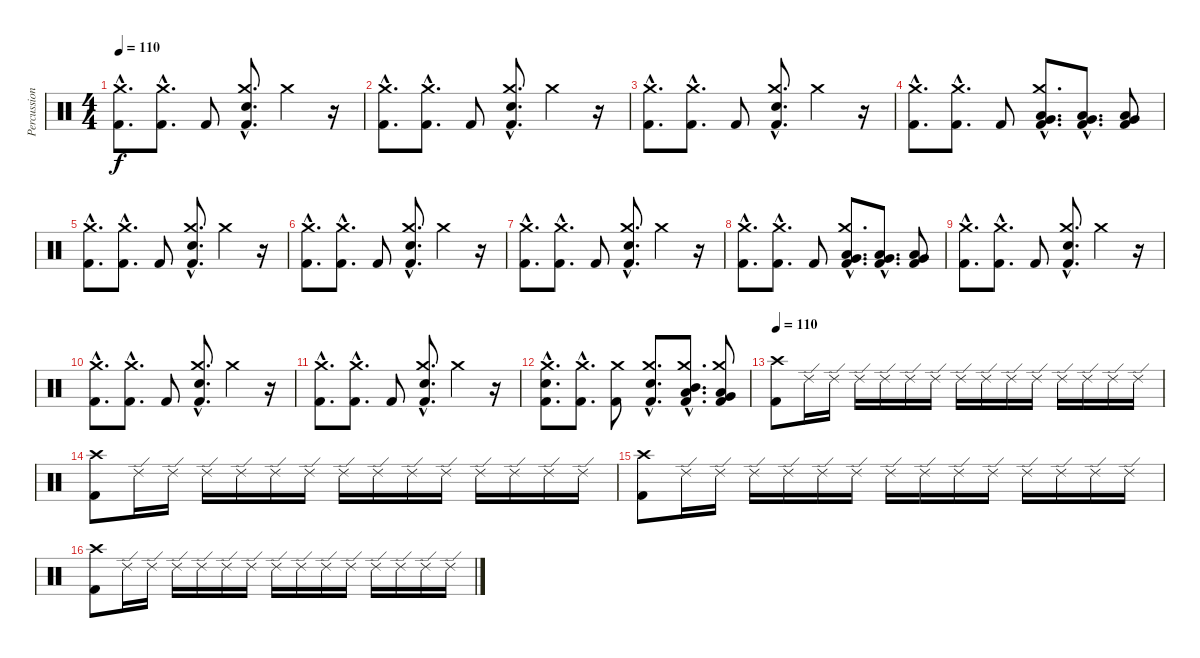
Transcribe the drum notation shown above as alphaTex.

\track ("Percussion" "Percussion") {instrument percussion}
\staff {score}
\articulation defaults
\ts (4 4)
\tempo 110
\clef neutral
\ks c
("Kick (hit) 2"{hac} "Crash medium (hit)"{hac}).8{d dy f} ("Kick (hit) 2"{hac} "Crash medium (hit)"{hac}).8{d} "Kick (hit) 2".8 ("Snare (hit) 2"{hac} "Kick (hit) 2"{hac} "Crash medium (hit)"{hac}).8{d} "Crash medium (hit)".4 r.16 |
("Kick (hit) 2"{hac} "Crash medium (hit)"{hac}).8{d} ("Kick (hit) 2"{hac} "Crash medium (hit)"{hac}).8{d} "Kick (hit) 2".8 ("Snare (hit) 2"{hac} "Kick (hit) 2"{hac} "Crash medium (hit)"{hac}).8{d} "Crash medium (hit)".4 r.16 |
("Kick (hit) 2"{hac} "Crash medium (hit)"{hac}).8{d} ("Kick (hit) 2"{hac} "Crash medium (hit)"{hac}).8{d} "Kick (hit) 2".8 ("Snare (hit) 2"{hac} "Kick (hit) 2"{hac} "Crash medium (hit)"{hac}).8{d} "Crash medium (hit)".4 r.16 |
("Kick (hit) 2"{hac} "Crash medium (hit)"{hac}).8{d} ("Kick (hit) 2"{hac} "Crash medium (hit)"{hac}).8{d} "Kick (hit) 2".8 ("Kick (hit) 2"{hac} "Crash medium (hit)"{hac} "Very Low Tom (hit)"{hac} "Low Floor Tom (hit)"{hac}).8{d} ("Kick (hit) 2"{hac} "Very Low Tom (hit)"{hac} "Low Floor Tom (hit)"{hac}).8{d} ("Kick (hit) 2" "Very Low Tom (hit)" "Low Floor Tom (hit)").8 |
("Kick (hit) 2"{hac} "Crash medium (hit)"{hac}).8{d} ("Kick (hit) 2"{hac} "Crash medium (hit)"{hac}).8{d} "Kick (hit) 2".8 ("Snare (hit) 2"{hac} "Kick (hit) 2"{hac} "Crash medium (hit)"{hac}).8{d} "Crash medium (hit)".4 r.16 |
("Kick (hit) 2"{hac} "Crash medium (hit)"{hac}).8{d} ("Kick (hit) 2"{hac} "Crash medium (hit)"{hac}).8{d} "Kick (hit) 2".8 ("Snare (hit) 2"{hac} "Kick (hit) 2"{hac} "Crash medium (hit)"{hac}).8{d} "Crash medium (hit)".4 r.16 |
("Kick (hit) 2"{hac} "Crash medium (hit)"{hac}).8{d} ("Kick (hit) 2"{hac} "Crash medium (hit)"{hac}).8{d} "Kick (hit) 2".8 ("Snare (hit) 2"{hac} "Kick (hit) 2"{hac} "Crash medium (hit)"{hac}).8{d} "Crash medium (hit)".4 r.16 |
("Kick (hit) 2"{hac} "Crash medium (hit)"{hac}).8{d} ("Kick (hit) 2"{hac} "Crash medium (hit)"{hac}).8{d} "Kick (hit) 2".8 ("Kick (hit) 2"{hac} "Crash medium (hit)"{hac} "Very Low Tom (hit)"{hac} "Low Floor Tom (hit)"{hac}).8{d} ("Kick (hit) 2"{hac} "Very Low Tom (hit)"{hac} "Low Floor Tom (hit)"{hac}).8{d} ("Kick (hit) 2" "Very Low Tom (hit)" "Low Floor Tom (hit)").8 |
("Kick (hit) 2"{hac} "Crash medium (hit)"{hac}).8{d} ("Kick (hit) 2"{hac} "Crash medium (hit)"{hac}).8{d} "Kick (hit) 2".8 ("Snare (hit) 2"{hac} "Kick (hit) 2"{hac} "Crash medium (hit)"{hac}).8{d} "Crash medium (hit)".4 r.16 |
("Kick (hit) 2"{hac} "Crash medium (hit)"{hac}).8{d} ("Kick (hit) 2"{hac} "Crash medium (hit)"{hac}).8{d} "Kick (hit) 2".8 ("Snare (hit) 2"{hac} "Kick (hit) 2"{hac} "Crash medium (hit)"{hac}).8{d} "Crash medium (hit)".4 r.16 |
("Kick (hit) 2"{hac} "Crash medium (hit)"{hac}).8{d} ("Kick (hit) 2"{hac} "Crash medium (hit)"{hac}).8{d} "Kick (hit) 2".8 ("Snare (hit) 2"{hac} "Kick (hit) 2"{hac} "Crash medium (hit)"{hac}).8{d} "Crash medium (hit)".4 r.16 |
("Snare (hit) 2"{hac} "Kick (hit) 2"{hac} "Crash medium (hit)"{hac}).8{d} ("Kick (hit) 2"{hac} "Crash medium (hit)"{hac}).8{d} ("Kick (hit) 2" "Crash medium (hit)").8 ("Snare (hit) 2"{hac} "Kick (hit) 2"{hac} "Crash medium (hit)"{hac}).8{d} ("Kick (hit) 2"{hac} "Crash medium (hit)"{hac} "Mid Tom (hit)"{hac} "Low Tom (hit)"{hac}).8{d} ("Kick (hit) 2" "Crash medium (hit)" "Low Tom (hit)" "Very Low Tom (hit)").8 |
\tempo 110
("Kick (hit) 2" "Crash high (hit)").8 "Ride (edge) 2".16 "Ride (edge) 2".16 "Ride (edge) 2".16 "Ride (edge) 2".16 "Ride (edge) 2".16 "Ride (edge) 2".16 "Ride (edge) 2".16 "Ride (edge) 2".16 "Ride (edge) 2".16 "Ride (edge) 2".16 "Ride (edge) 2".16 "Ride (edge) 2".16 "Ride (edge) 2".16 "Ride (edge) 2".16 |
("Kick (hit) 2" "Crash high (hit)").8 "Ride (edge) 2".16 "Ride (edge) 2".16 "Ride (edge) 2".16 "Ride (edge) 2".16 "Ride (edge) 2".16 "Ride (edge) 2".16 "Ride (edge) 2".16 "Ride (edge) 2".16 "Ride (edge) 2".16 "Ride (edge) 2".16 "Ride (edge) 2".16 "Ride (edge) 2".16 "Ride (edge) 2".16 "Ride (edge) 2".16 |
("Kick (hit) 2" "Crash high (hit)").8 "Ride (edge) 2".16 "Ride (edge) 2".16 "Ride (edge) 2".16 "Ride (edge) 2".16 "Ride (edge) 2".16 "Ride (edge) 2".16 "Ride (edge) 2".16 "Ride (edge) 2".16 "Ride (edge) 2".16 "Ride (edge) 2".16 "Ride (edge) 2".16 "Ride (edge) 2".16 "Ride (edge) 2".16 "Ride (edge) 2".16 |
("Kick (hit) 2" "Crash high (hit)").8 "Ride (edge) 2".16 "Ride (edge) 2".16 "Ride (edge) 2".16 "Ride (edge) 2".16 "Ride (edge) 2".16 "Ride (edge) 2".16 "Ride (edge) 2".16 "Ride (edge) 2".16 "Ride (edge) 2".16 "Ride (edge) 2".16 "Ride (edge) 2".16 "Ride (edge) 2".16 "Ride (edge) 2".16 "Ride (edge) 2".16
